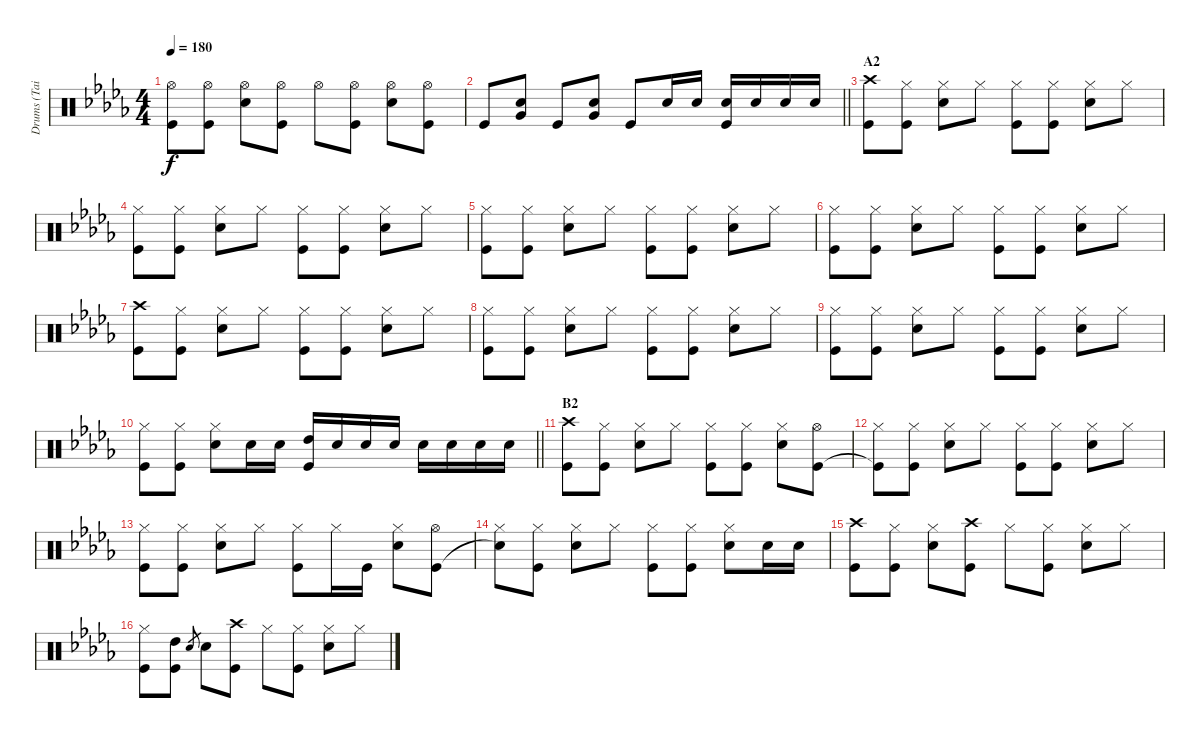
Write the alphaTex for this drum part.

\track ("Drums (Tainaka Ritsu)" "Drums (Tai") {instrument percussion}
\staff {score}
\articulation defaults
\ts (4 4)
\tempo 180
\clef neutral
\ks db
("Hi-Hat (open)" "Kick (hit)").8{dy f} ("Hi-Hat (open)" "Kick (hit)").8 ("Hi-Hat (open)" "Snare (hit) 2").8 ("Hi-Hat (open)" "Kick (hit)").8 "Hi-Hat (open)".8 ("Hi-Hat (open)" "Kick (hit)").8 ("Hi-Hat (open)" "Snare (hit) 2").8 ("Hi-Hat (open)" "Kick (hit)").8 |
\barLineRight lightlight "Kick (hit)".8
("Snare (hit) 2" "Very Low Tom (hit)").8 "Kick (hit)".8 ("Snare (hit) 2" "Very Low Tom (hit)").8 "Kick (hit)".8 "Snare (hit) 2".16 "Snare (hit) 2".16 ("Snare (hit) 2" "Kick (hit)").16 "Snare (hit) 2".16 "Snare (hit) 2".16 "Snare (hit) 2".16 |
\section ("" "A2")
("Crash high (hit)" "Kick (hit)").8 ("Hi-Hat (closed)" "Kick (hit)").8 ("Hi-Hat (closed)" "Snare (hit) 2").8 "Hi-Hat (closed)".8 ("Hi-Hat (closed)" "Kick (hit)").8 ("Hi-Hat (closed)" "Kick (hit)").8 ("Hi-Hat (closed)" "Snare (hit) 2").8 "Hi-Hat (closed)".8 |
("Hi-Hat (closed)" "Kick (hit)").8 ("Hi-Hat (closed)" "Kick (hit)").8 ("Hi-Hat (closed)" "Snare (hit) 2").8 "Hi-Hat (closed)".8 ("Hi-Hat (closed)" "Kick (hit)").8 ("Hi-Hat (closed)" "Kick (hit)").8 ("Hi-Hat (closed)" "Snare (hit) 2").8 "Hi-Hat (closed)".8 |
("Hi-Hat (closed)" "Kick (hit)").8 ("Hi-Hat (closed)" "Kick (hit)").8 ("Hi-Hat (closed)" "Snare (hit) 2").8 "Hi-Hat (closed)".8 ("Hi-Hat (closed)" "Kick (hit)").8 ("Hi-Hat (closed)" "Kick (hit)").8 ("Hi-Hat (closed)" "Snare (hit) 2").8 "Hi-Hat (closed)".8 |
("Hi-Hat (closed)" "Kick (hit)").8 ("Hi-Hat (closed)" "Kick (hit)").8 ("Hi-Hat (closed)" "Snare (hit) 2").8 "Hi-Hat (closed)".8 ("Hi-Hat (closed)" "Kick (hit)").8 ("Hi-Hat (closed)" "Kick (hit)").8 ("Hi-Hat (closed)" "Snare (hit) 2").8 "Hi-Hat (closed)".8 |
("Crash high (hit)" "Kick (hit)").8 ("Hi-Hat (closed)" "Kick (hit)").8 ("Hi-Hat (closed)" "Snare (hit) 2").8 "Hi-Hat (closed)".8 ("Hi-Hat (closed)" "Kick (hit)").8 ("Hi-Hat (closed)" "Kick (hit)").8 ("Hi-Hat (closed)" "Snare (hit) 2").8 "Hi-Hat (closed)".8 |
("Hi-Hat (closed)" "Kick (hit)").8 ("Hi-Hat (closed)" "Kick (hit)").8 ("Hi-Hat (closed)" "Snare (hit) 2").8 "Hi-Hat (closed)".8 ("Hi-Hat (closed)" "Kick (hit)").8 ("Hi-Hat (closed)" "Kick (hit)").8 ("Hi-Hat (closed)" "Snare (hit) 2").8 "Hi-Hat (closed)".8 |
("Hi-Hat (closed)" "Kick (hit)").8 ("Hi-Hat (closed)" "Kick (hit)").8 ("Hi-Hat (closed)" "Snare (hit) 2").8 "Hi-Hat (closed)".8 ("Hi-Hat (closed)" "Kick (hit)").8 ("Hi-Hat (closed)" "Kick (hit)").8 ("Hi-Hat (closed)" "Snare (hit) 2").8 "Hi-Hat (closed)".8 |
\barLineRight lightlight
("Hi-Hat (closed)" "Kick (hit)").8 ("Hi-Hat (closed)" "Kick (hit)").8 ("Hi-Hat (closed)" "Snare (hit) 2").8 "Snare (hit) 2".16 "Snare (hit) 2".16 ("High Tom (hit)" "Kick (hit)").16 "Snare (hit) 2".16 "Snare (hit) 2".16 "Snare (hit) 2".16 "Snare (hit) 2".16 "Snare (hit) 2".16 "Snare (hit) 2".16 "Snare (hit) 2".16 |
\section ("" "B2")
("Crash high (hit)" "Kick (hit)").8 ("Hi-Hat (closed)" "Kick (hit)").8 ("Hi-Hat (closed)" "Snare (hit) 2").8 "Hi-Hat (closed)".8 ("Hi-Hat (closed)" "Kick (hit)").8 ("Hi-Hat (closed)" "Kick (hit)").8 ("Hi-Hat (closed)" "Snare (hit) 2").8 ("Hi-Hat (open)" "Kick (hit)").8 |
("Hi-Hat (closed)" "Kick (hit)"{t}).8 ("Hi-Hat (closed)" "Kick (hit)").8 ("Hi-Hat (closed)" "Snare (hit) 2").8 "Hi-Hat (closed)".8 ("Hi-Hat (closed)" "Kick (hit)").8 ("Hi-Hat (closed)" "Kick (hit)").8 ("Hi-Hat (closed)" "Snare (hit) 2").8 "Hi-Hat (closed)".8 |
("Hi-Hat (closed)" "Kick (hit)").8 ("Hi-Hat (closed)" "Kick (hit)").8 ("Hi-Hat (closed)" "Snare (hit) 2").8 "Hi-Hat (closed)".8 ("Hi-Hat (closed)" "Kick (hit)").8 "Hi-Hat (closed)".16 "Kick (hit)".16 ("Hi-Hat (closed)" "Snare (hit) 2").8 ("Hi-Hat (open)" "Kick (hit)").8 |
("Hi-Hat (closed)" "Snare (hit)"{t}).8 ("Hi-Hat (closed)" "Kick (hit)").8 ("Hi-Hat (closed)" "Snare (hit) 2").8 "Hi-Hat (closed)".8 ("Hi-Hat (closed)" "Kick (hit)").8 ("Hi-Hat (closed)" "Kick (hit)").8 ("Hi-Hat (closed)" "Snare (hit) 2").8 "Snare (hit) 2".16 "Snare (hit) 2".16 |
("Crash high (hit)" "Kick (hit)").8 ("Hi-Hat (closed)" "Kick (hit)").8 ("Hi-Hat (closed)" "Snare (hit) 2").8 ("Crash high (hit)" "Kick (hit)").8 "Hi-Hat (closed)".8 ("Hi-Hat (closed)" "Kick (hit)").8 ("Hi-Hat (closed)" "Snare (hit) 2").8 "Hi-Hat (closed)".8 |
("Hi-Hat (closed)" "Kick (hit)").8 ("High Tom (hit)" "Kick (hit)").8 "Snare (hit) 2".8{gr} "Snare (hit) 2".8 ("Crash high (hit)" "Kick (hit)").8 "Hi-Hat (closed)".8 ("Hi-Hat (closed)" "Kick (hit)").8 ("Hi-Hat (closed)" "Snare (hit) 2").8 "Hi-Hat (closed)".8
